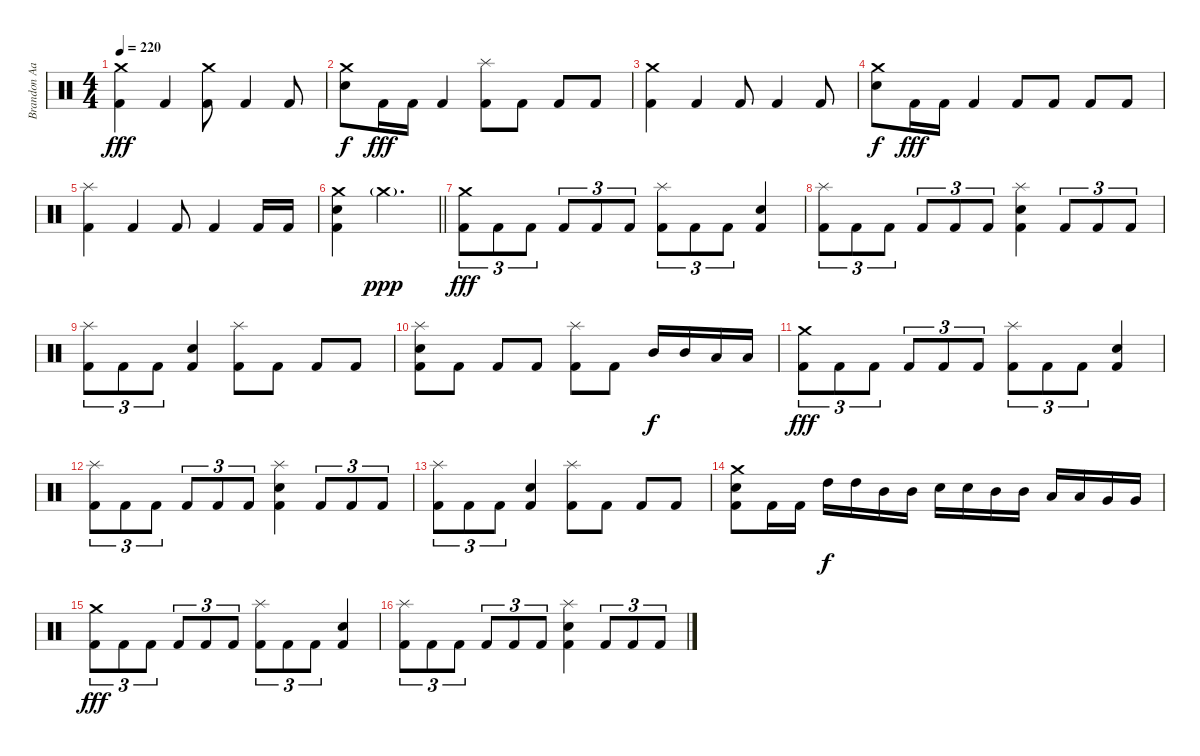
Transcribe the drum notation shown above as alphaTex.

\track ("Brandon Aaron Burkhalter" "Brandon Aa") {instrument percussion}
\staff {score}
\articulation defaults
\ts (4 4)
\tempo 220
\clef neutral
\ks c
("Crash medium (hit)" "Kick (hit) 2").4{dy fff} "Kick (hit) 2".4 ("Crash medium (hit)" "Kick (hit) 2").8 "Kick (hit) 2".4 "Kick (hit) 2".8 |
("Crash medium (hit)" "Snare (hit) 2").8{dy f} "Kick (hit) 2".16{dy fff} "Kick (hit) 2".16 "Kick (hit) 2".4 ("Splash (hit)" "Kick (hit) 2").8 "Kick (hit) 2".8 "Kick (hit) 2".8 "Kick (hit) 2".8 |
("Crash medium (hit)" "Kick (hit) 2").4 "Kick (hit) 2".4 "Kick (hit) 2".8 "Kick (hit) 2".4 "Kick (hit) 2".8 |
("Crash medium (hit)" "Snare (hit) 2").8{dy f} "Kick (hit) 2".16{dy fff} "Kick (hit) 2".16 "Kick (hit) 2".4 "Kick (hit) 2".8 "Kick (hit) 2".8 "Kick (hit) 2".8 "Kick (hit) 2".8 |
("Splash (hit)" "Kick (hit) 2").4 "Kick (hit) 2".4 "Kick (hit) 2".8 "Kick (hit) 2".4 "Kick (hit) 2".16 "Kick (hit) 2".16 |
\barLineRight lightlight
("Crash medium (hit)" "Snare (hit) 2" "Kick (hit) 2").4 "Crash medium (hit)"{g}.2{d dy ppp} |
("Crash medium (hit)" "Kick (hit) 2").8{tu (3 2) dy fff} "Kick (hit) 2".8{tu (3 2)} "Kick (hit) 2".8{tu (3 2)} "Kick (hit) 2".8{tu (3 2)} "Kick (hit) 2".8{tu (3 2)} "Kick (hit) 2".8{tu (3 2)} ("Splash (hit)" "Kick (hit) 2").8{tu (3 2)} "Kick (hit) 2".8{tu (3 2)} "Kick (hit) 2".8{tu (3 2)} ("Snare (hit) 2" "Kick (hit) 2").4 |
("Splash (hit)" "Kick (hit) 2").8{tu (3 2)} "Kick (hit) 2".8{tu (3 2)} "Kick (hit) 2".8{tu (3 2)} "Kick (hit) 2".8{tu (3 2)} "Kick (hit) 2".8{tu (3 2)} "Kick (hit) 2".8{tu (3 2)} ("Splash (hit)" "Snare (hit) 2" "Kick (hit) 2").4 "Kick (hit) 2".8{tu (3 2)} "Kick (hit) 2".8{tu (3 2)} "Kick (hit) 2".8{tu (3 2)} |
("Splash (hit)" "Kick (hit) 2").8{tu (3 2)} "Kick (hit) 2".8{tu (3 2)} "Kick (hit) 2".8{tu (3 2)} ("Snare (hit) 2" "Kick (hit) 2").4 ("Splash (hit)" "Kick (hit) 2").8 "Kick (hit) 2".8 "Kick (hit) 2".8 "Kick (hit) 2".8 |
("Splash (hit)" "Snare (hit) 2" "Kick (hit) 2").8 "Kick (hit) 2".8 "Kick (hit) 2".8 "Kick (hit) 2".8 ("Splash (hit)" "Kick (hit) 2").8 "Kick (hit) 2".8 "Mid Tom (hit)".16{dy f} "Mid Tom (hit)".16 "Low Tom (hit)".16 "Low Tom (hit)".16 |
("Crash medium (hit)" "Kick (hit) 2").8{tu (3 2) dy fff} "Kick (hit) 2".8{tu (3 2)} "Kick (hit) 2".8{tu (3 2)} "Kick (hit) 2".8{tu (3 2)} "Kick (hit) 2".8{tu (3 2)} "Kick (hit) 2".8{tu (3 2)} ("Splash (hit)" "Kick (hit) 2").8{tu (3 2)} "Kick (hit) 2".8{tu (3 2)} "Kick (hit) 2".8{tu (3 2)} ("Snare (hit) 2" "Kick (hit) 2").4 |
("Splash (hit)" "Kick (hit) 2").8{tu (3 2)} "Kick (hit) 2".8{tu (3 2)} "Kick (hit) 2".8{tu (3 2)} "Kick (hit) 2".8{tu (3 2)} "Kick (hit) 2".8{tu (3 2)} "Kick (hit) 2".8{tu (3 2)} ("Splash (hit)" "Snare (hit) 2" "Kick (hit) 2").4 "Kick (hit) 2".8{tu (3 2)} "Kick (hit) 2".8{tu (3 2)} "Kick (hit) 2".8{tu (3 2)} |
("Splash (hit)" "Kick (hit) 2").8{tu (3 2)} "Kick (hit) 2".8{tu (3 2)} "Kick (hit) 2".8{tu (3 2)} ("Snare (hit) 2" "Kick (hit) 2").4 ("Splash (hit)" "Kick (hit) 2").8 "Kick (hit) 2".8 "Kick (hit) 2".8 "Kick (hit) 2".8 |
("Crash medium (hit)" "Snare (hit) 2" "Kick (hit) 2").8 "Kick (hit) 2".16 "Kick (hit) 2".16 "High Tom (hit)".16{dy f} "High Tom (hit)".16 "Mid Tom (hit)".16 "Mid Tom (hit)".16 "Snare (hit) 2".16 "Snare (hit) 2".16 "Mid Tom (hit)".16 "Mid Tom (hit)".16 "Low Tom (hit)".16 "Low Tom (hit)".16 "Very Low Tom (hit)".16 "Very Low Tom (hit)".16 |
("Crash medium (hit)" "Kick (hit) 2").8{tu (3 2) dy fff} "Kick (hit) 2".8{tu (3 2)} "Kick (hit) 2".8{tu (3 2)} "Kick (hit) 2".8{tu (3 2)} "Kick (hit) 2".8{tu (3 2)} "Kick (hit) 2".8{tu (3 2)} ("Splash (hit)" "Kick (hit) 2").8{tu (3 2)} "Kick (hit) 2".8{tu (3 2)} "Kick (hit) 2".8{tu (3 2)} ("Snare (hit) 2" "Kick (hit) 2").4 |
("Splash (hit)" "Kick (hit) 2").8{tu (3 2)} "Kick (hit) 2".8{tu (3 2)} "Kick (hit) 2".8{tu (3 2)} "Kick (hit) 2".8{tu (3 2)} "Kick (hit) 2".8{tu (3 2)} "Kick (hit) 2".8{tu (3 2)} ("Splash (hit)" "Snare (hit) 2" "Kick (hit) 2").4 "Kick (hit) 2".8{tu (3 2)} "Kick (hit) 2".8{tu (3 2)} "Kick (hit) 2".8{tu (3 2)}
